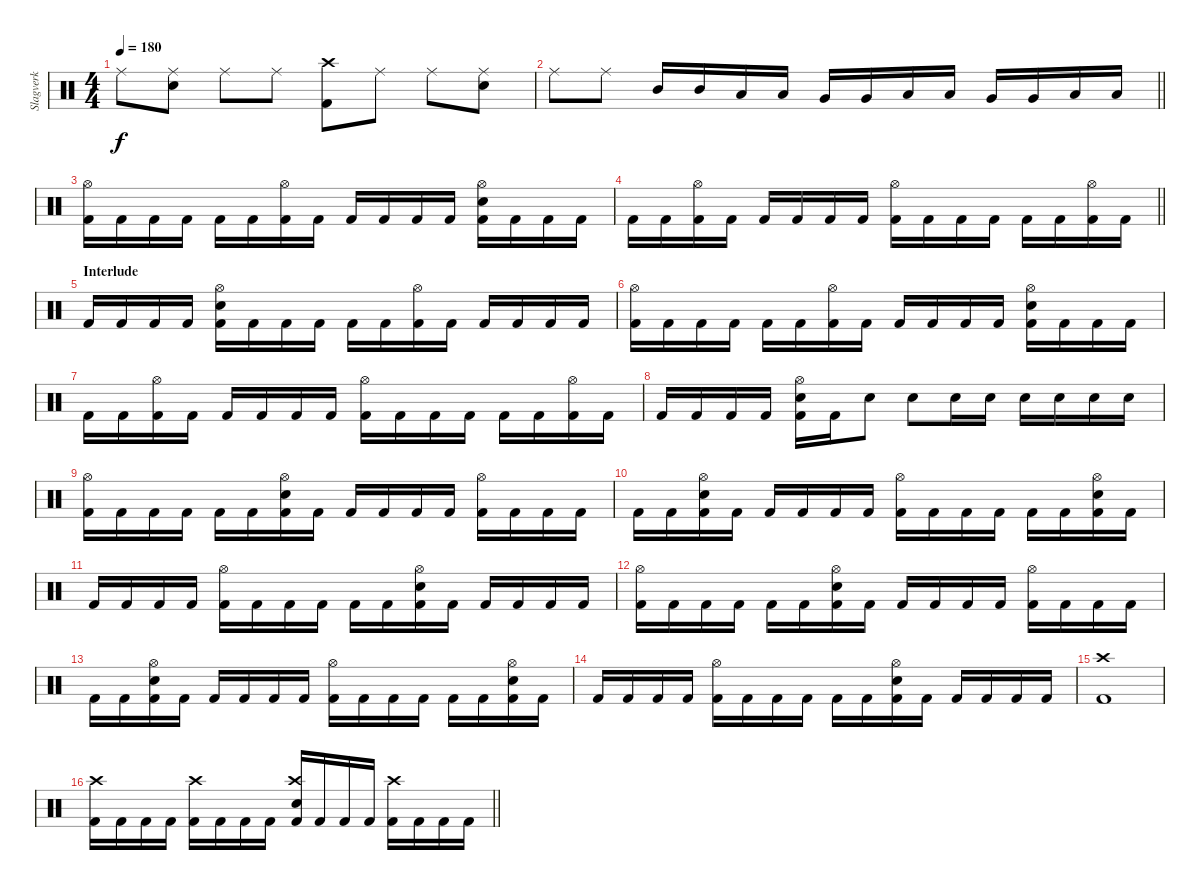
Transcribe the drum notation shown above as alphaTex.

\track ("Slagverk" "Slagverk") {instrument percussion}
\staff {score}
\articulation defaults
\ts (4 4)
\tempo 180
\clef neutral
\ks c "Ride (middle)".8{dy f}
("Ride (middle)" "Electric Snare (hit)").8 "Ride (middle)".8 "Ride (middle)".8 ("Crash high (hit)" "Kick (hit) 2").8 "Ride (middle)".8 "Ride (middle)".8 ("Ride (middle)" "Electric Snare (hit)").8 |
\barLineRight lightlight "Ride (middle)".8 "Ride (middle)".8 "Mid Tom (hit)".16 "Mid Tom (hit)".16 "Low Tom (hit)".16 "Low Tom (hit)".16 "Very Low Tom (hit)".16 "Very Low Tom (hit)".16 "Low Tom (hit)".16 "Low Tom (hit)".16 "Very Low Tom (hit)".16 "Very Low Tom (hit)".16 "Low Floor Tom (hit)".16 "Low Floor Tom (hit)".16
|
("Hi-Hat (open)" "Kick (hit) 2").16 "Kick (hit) 2".16 "Kick (hit) 2".16 "Kick (hit) 2".16 "Kick (hit) 2".16 "Kick (hit) 2".16 ("Hi-Hat (open)" "Kick (hit) 2").16 "Kick (hit) 2".16 "Kick (hit) 2".16 "Kick (hit) 2".16 "Kick (hit) 2".16 "Kick (hit) 2".16 ("Hi-Hat (open)" "Electric Snare (hit)" "Kick (hit) 2").16 "Kick (hit) 2".16 "Kick (hit) 2".16 "Kick (hit) 2".16 |
\barLineRight lightlight "Kick (hit) 2".16 "Kick (hit) 2".16
("Hi-Hat (open)" "Kick (hit) 2").16 "Kick (hit) 2".16 "Kick (hit) 2".16 "Kick (hit) 2".16 "Kick (hit) 2".16 "Kick (hit) 2".16 ("Hi-Hat (open)" "Kick (hit) 2").16 "Kick (hit) 2".16 "Kick (hit) 2".16 "Kick (hit) 2".16 "Kick (hit) 2".16 "Kick (hit) 2".16 ("Hi-Hat (open)" "Kick (hit) 2").16 "Kick (hit) 2".16 |
\section ("" "Interlude")
"Kick (hit) 2".16 "Kick (hit) 2".16 "Kick (hit) 2".16 "Kick (hit) 2".16 ("Hi-Hat (open)" "Electric Snare (hit)" "Kick (hit) 2").16 "Kick (hit) 2".16 "Kick (hit) 2".16 "Kick (hit) 2".16 "Kick (hit) 2".16 "Kick (hit) 2".16 ("Hi-Hat (open)" "Kick (hit) 2").16 "Kick (hit) 2".16 "Kick (hit) 2".16 "Kick (hit) 2".16 "Kick (hit) 2".16 "Kick (hit) 2".16 |
("Hi-Hat (open)" "Kick (hit) 2").16 "Kick (hit) 2".16 "Kick (hit) 2".16 "Kick (hit) 2".16 "Kick (hit) 2".16 "Kick (hit) 2".16 ("Hi-Hat (open)" "Kick (hit) 2").16 "Kick (hit) 2".16 "Kick (hit) 2".16 "Kick (hit) 2".16 "Kick (hit) 2".16 "Kick (hit) 2".16 ("Hi-Hat (open)" "Electric Snare (hit)" "Kick (hit) 2").16 "Kick (hit) 2".16 "Kick (hit) 2".16 "Kick (hit) 2".16 |
"Kick (hit) 2".16 "Kick (hit) 2".16 ("Hi-Hat (open)" "Kick (hit) 2").16 "Kick (hit) 2".16 "Kick (hit) 2".16 "Kick (hit) 2".16 "Kick (hit) 2".16 "Kick (hit) 2".16 ("Hi-Hat (open)" "Kick (hit) 2").16 "Kick (hit) 2".16 "Kick (hit) 2".16 "Kick (hit) 2".16 "Kick (hit) 2".16 "Kick (hit) 2".16 ("Hi-Hat (open)" "Kick (hit) 2").16 "Kick (hit) 2".16 |
"Kick (hit) 2".16 "Kick (hit) 2".16 "Kick (hit) 2".16 "Kick (hit) 2".16 ("Hi-Hat (open)" "Electric Snare (hit)" "Kick (hit) 2").16 "Kick (hit) 2".16 "Electric Snare (hit)".8 "Electric Snare (hit)".8 "Electric Snare (hit)".16 "Electric Snare (hit)".16 "Electric Snare (hit)".16 "Electric Snare (hit)".16 "Electric Snare (hit)".16 "Electric Snare (hit)".16 |
("Hi-Hat (open)" "Kick (hit) 2").16 "Kick (hit) 2".16 "Kick (hit) 2".16 "Kick (hit) 2".16 "Kick (hit) 2".16 "Kick (hit) 2".16 ("Hi-Hat (open)" "Electric Snare (hit)" "Kick (hit) 2").16 "Kick (hit) 2".16 "Kick (hit) 2".16 "Kick (hit) 2".16 "Kick (hit) 2".16 "Kick (hit) 2".16 ("Hi-Hat (open)" "Kick (hit) 2").16 "Kick (hit) 2".16 "Kick (hit) 2".16 "Kick (hit) 2".16 |
"Kick (hit) 2".16 "Kick (hit) 2".16 ("Hi-Hat (open)" "Electric Snare (hit)" "Kick (hit) 2").16 "Kick (hit) 2".16 "Kick (hit) 2".16 "Kick (hit) 2".16 "Kick (hit) 2".16 "Kick (hit) 2".16 ("Hi-Hat (open)" "Kick (hit) 2").16 "Kick (hit) 2".16 "Kick (hit) 2".16 "Kick (hit) 2".16 "Kick (hit) 2".16 "Kick (hit) 2".16 ("Hi-Hat (open)" "Electric Snare (hit)" "Kick (hit) 2").16 "Kick (hit) 2".16 |
"Kick (hit) 2".16 "Kick (hit) 2".16 "Kick (hit) 2".16 "Kick (hit) 2".16 ("Hi-Hat (open)" "Kick (hit) 2").16 "Kick (hit) 2".16 "Kick (hit) 2".16 "Kick (hit) 2".16 "Kick (hit) 2".16 "Kick (hit) 2".16 ("Hi-Hat (open)" "Electric Snare (hit)" "Kick (hit) 2").16 "Kick (hit) 2".16 "Kick (hit) 2".16 "Kick (hit) 2".16 "Kick (hit) 2".16 "Kick (hit) 2".16 |
("Hi-Hat (open)" "Kick (hit) 2").16 "Kick (hit) 2".16 "Kick (hit) 2".16 "Kick (hit) 2".16 "Kick (hit) 2".16 "Kick (hit) 2".16 ("Hi-Hat (open)" "Electric Snare (hit)" "Kick (hit) 2").16 "Kick (hit) 2".16 "Kick (hit) 2".16 "Kick (hit) 2".16 "Kick (hit) 2".16 "Kick (hit) 2".16 ("Hi-Hat (open)" "Kick (hit) 2").16 "Kick (hit) 2".16 "Kick (hit) 2".16 "Kick (hit) 2".16 |
"Kick (hit) 2".16 "Kick (hit) 2".16 ("Hi-Hat (open)" "Electric Snare (hit)" "Kick (hit) 2").16 "Kick (hit) 2".16 "Kick (hit) 2".16 "Kick (hit) 2".16 "Kick (hit) 2".16 "Kick (hit) 2".16 ("Hi-Hat (open)" "Kick (hit) 2").16 "Kick (hit) 2".16 "Kick (hit) 2".16 "Kick (hit) 2".16 "Kick (hit) 2".16 "Kick (hit) 2".16 ("Hi-Hat (open)" "Electric Snare (hit)" "Kick (hit) 2").16 "Kick (hit) 2".16 |
"Kick (hit) 2".16 "Kick (hit) 2".16 "Kick (hit) 2".16 "Kick (hit) 2".16 ("Hi-Hat (open)" "Kick (hit) 2").16 "Kick (hit) 2".16 "Kick (hit) 2".16 "Kick (hit) 2".16 "Kick (hit) 2".16 "Kick (hit) 2".16 ("Hi-Hat (open)" "Electric Snare (hit)" "Kick (hit) 2").16 "Kick (hit) 2".16 "Kick (hit) 2".16 "Kick (hit) 2".16 "Kick (hit) 2".16 "Kick (hit) 2".16 |
("Crash high (hit)" "Kick (hit) 2").1 |
\barLineRight lightlight
("Crash high (hit)" "Kick (hit) 2").16 "Kick (hit) 2".16 "Kick (hit) 2".16 "Kick (hit) 2".16 ("Crash high (hit)" "Kick (hit) 2").16 "Kick (hit) 2".16 "Kick (hit) 2".16 "Kick (hit) 2".16 ("Crash high (hit)" "Electric Snare (hit)" "Kick (hit) 2").16 "Kick (hit) 2".16 "Kick (hit) 2".16 "Kick (hit) 2".16 ("Crash high (hit)" "Kick (hit) 2").16 "Kick (hit) 2".16 "Kick (hit) 2".16 "Kick (hit) 2".16
